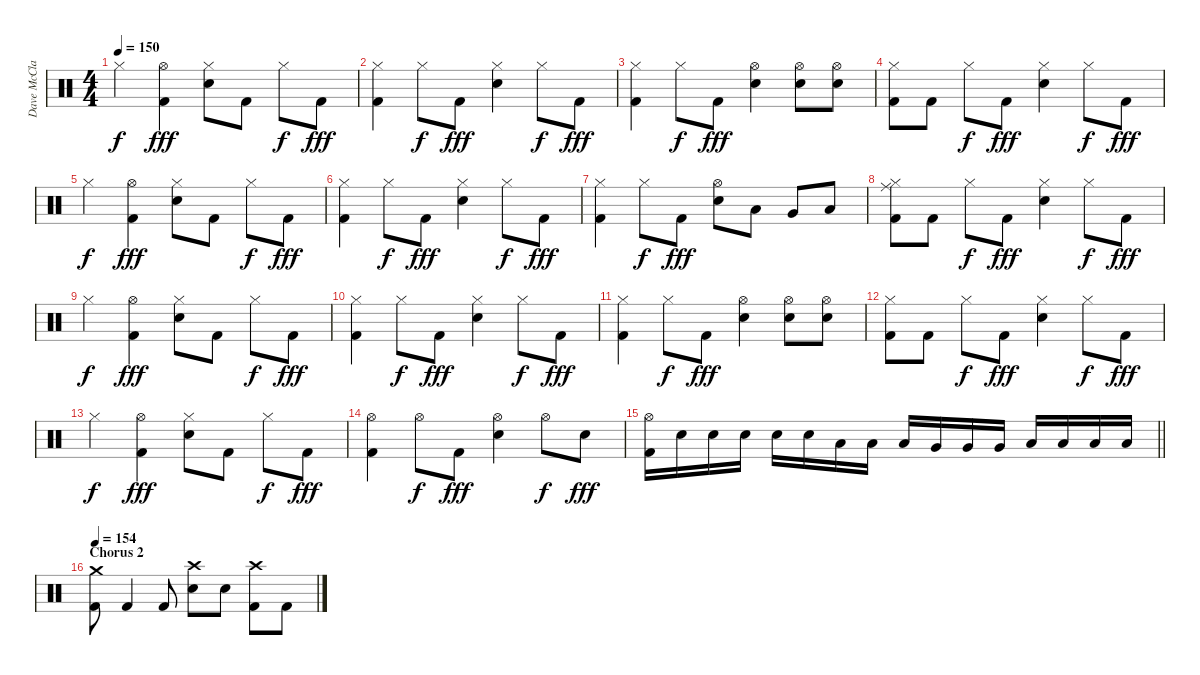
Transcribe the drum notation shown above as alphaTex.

\track ("Dave McClain" "Dave McCla") {instrument percussion}
\staff {score}
\articulation defaults
\ts (4 4)
\tempo 150
\clef neutral
\ks c "Hi-Hat (closed)".4{dy f}
("Hi-Hat (open)" "Kick (hit) 2").4{dy fff} ("Hi-Hat (closed)" "Electric Snare (hit)").8 "Kick (hit) 2".8 "Hi-Hat (closed)".8{dy f} "Kick (hit) 2".8{dy fff} |
("Hi-Hat (closed)" "Kick (hit) 2").4 "Hi-Hat (closed)".8{dy f} "Kick (hit) 2".8{dy fff} ("Hi-Hat (closed)" "Electric Snare (hit)").4 "Hi-Hat (closed)".8{dy f} "Kick (hit) 2".8{dy fff} |
("Hi-Hat (closed)" "Kick (hit) 2").4 "Hi-Hat (closed)".8{dy f} "Kick (hit) 2".8{dy fff} ("Hi-Hat (open)" "Electric Snare (hit)").4 ("Hi-Hat (open)" "Electric Snare (hit)").8 ("Hi-Hat (open)" "Electric Snare (hit)").8 |
("Hi-Hat (closed)" "Kick (hit) 2").8 "Kick (hit) 2".8 "Hi-Hat (closed)".8{dy f} "Kick (hit) 2".8{dy fff} ("Hi-Hat (closed)" "Electric Snare (hit)").4 "Hi-Hat (closed)".8{dy f} "Kick (hit) 2".8{dy fff} |
"Hi-Hat (closed)".4{dy f} ("Hi-Hat (open)" "Kick (hit) 2").4{dy fff} ("Hi-Hat (closed)" "Electric Snare (hit)").8 "Kick (hit) 2".8 "Hi-Hat (closed)".8{dy f} "Kick (hit) 2".8{dy fff} |
("Hi-Hat (closed)" "Kick (hit) 2").4 "Hi-Hat (closed)".8{dy f} "Kick (hit) 2".8{dy fff} ("Hi-Hat (closed)" "Electric Snare (hit)").4 "Hi-Hat (closed)".8{dy f} "Kick (hit) 2".8{dy fff} |
("Hi-Hat (closed)" "Kick (hit) 2").4 "Hi-Hat (closed)".8{dy f} "Kick (hit) 2".8{dy fff} ("Hi-Hat (open)" "Electric Snare (hit)").8 "Low Tom (hit)".8 "Very Low Tom (hit)".8 "Low Floor Tom (hit)".8 |
("Hi-Hat (closed)" "Ride (middle)" "Kick (hit) 2").8 "Kick (hit) 2".8 "Hi-Hat (closed)".8{dy f} "Kick (hit) 2".8{dy fff} ("Hi-Hat (closed)" "Electric Snare (hit)").4 "Hi-Hat (closed)".8{dy f} "Kick (hit) 2".8{dy fff} |
"Hi-Hat (closed)".4{dy f} ("Hi-Hat (open)" "Kick (hit) 2").4{dy fff} ("Hi-Hat (closed)" "Electric Snare (hit)").8 "Kick (hit) 2".8 "Hi-Hat (closed)".8{dy f} "Kick (hit) 2".8{dy fff} |
("Hi-Hat (closed)" "Kick (hit) 2").4 "Hi-Hat (closed)".8{dy f} "Kick (hit) 2".8{dy fff} ("Hi-Hat (closed)" "Electric Snare (hit)").4 "Hi-Hat (closed)".8{dy f} "Kick (hit) 2".8{dy fff} |
("Hi-Hat (closed)" "Kick (hit) 2").4 "Hi-Hat (closed)".8{dy f} "Kick (hit) 2".8{dy fff} ("Hi-Hat (open)" "Electric Snare (hit)").4 ("Hi-Hat (open)" "Electric Snare (hit)").8 ("Hi-Hat (open)" "Electric Snare (hit)").8 |
("Hi-Hat (closed)" "Kick (hit) 2").8 "Kick (hit) 2".8 "Hi-Hat (closed)".8{dy f} "Kick (hit) 2".8{dy fff} ("Hi-Hat (closed)" "Electric Snare (hit)").4 "Hi-Hat (closed)".8{dy f} "Kick (hit) 2".8{dy fff} |
"Hi-Hat (closed)".4{dy f} ("Hi-Hat (open)" "Kick (hit) 2").4{dy fff} ("Hi-Hat (closed)" "Electric Snare (hit)").8 "Kick (hit) 2".8 "Hi-Hat (closed)".8{dy f} "Kick (hit) 2".8{dy fff} |
("Hi-Hat (open)" "Kick (hit) 2").4 "Hi-Hat (open)".8{dy f} "Kick (hit) 2".8{dy fff} ("Hi-Hat (open)" "Electric Snare (hit)").4 "Hi-Hat (open)".8{dy f} "Electric Snare (hit)".8{dy fff} |
\barLineRight lightlight
("Hi-Hat (open)" "Kick (hit) 2").16 "Electric Snare (hit)".16 "Electric Snare (hit)".16 "Electric Snare (hit)".16 "Electric Snare (hit)".16 "Electric Snare (hit)".16 "Low Tom (hit)".16 "Low Tom (hit)".16 "Low Tom (hit)".16 "Very Low Tom (hit)".16 "Very Low Tom (hit)".16 "Very Low Tom (hit)".16 "Low Floor Tom (hit)".16 "Low Floor Tom (hit)".16 "Low Floor Tom (hit)".16 "Low Floor Tom (hit)".16 |
\section ("" "Chorus 2")
\tempo 154
("Crash medium (hit)" "Kick (hit) 2").8 "Kick (hit) 2".4 "Kick (hit) 2".8 ("Crash high (hit)" "Electric Snare (hit)").8 "Electric Snare (hit)".8 ("Crash high (hit)" "Kick (hit) 2").8 "Kick (hit) 2".8
